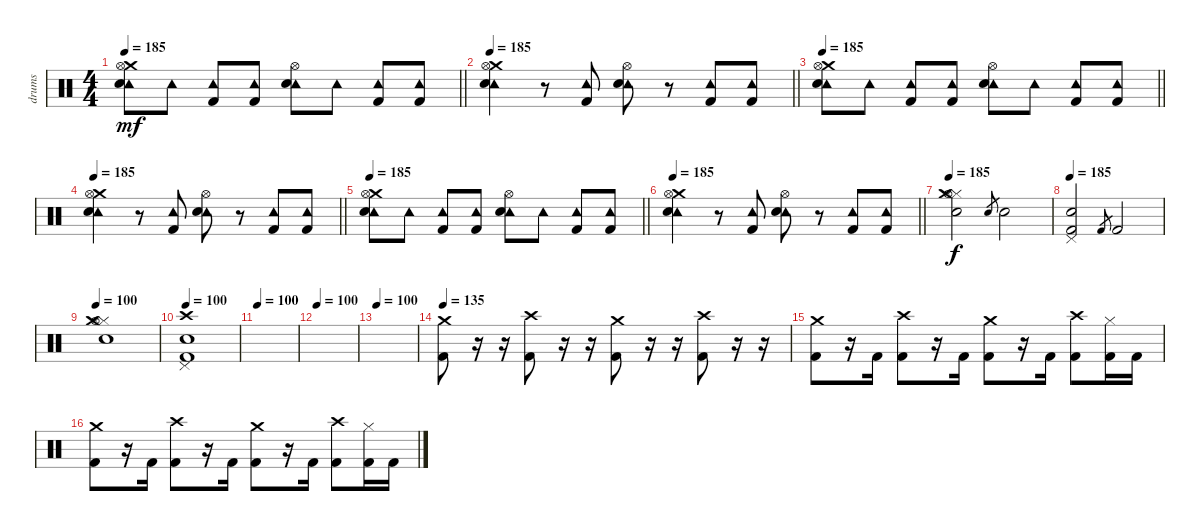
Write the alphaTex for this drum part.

\track ("drums" "drums") {instrument percussion}
\staff {score}
\articulation defaults
\ts (4 4)
\tempo 185
\clef neutral
\barLineRight lightlight
\ks c
("Tambourine (hit)" "Crash medium (hit)" "Hi-Hat (open)" "Electric Snare (hit)").8{dy mf} "Tambourine (hit)".8 ("Tambourine (hit)" "Kick (hit) 2").8 ("Tambourine (hit)" "Kick (hit) 2").8 ("Tambourine (hit)" "Hi-Hat (open)" "Electric Snare (hit)").8 "Tambourine (hit)".8 ("Tambourine (hit)" "Kick (hit) 2").8 ("Tambourine (hit)" "Kick (hit) 2").8 |
\tempo 185
\barLineRight lightlight
("Tambourine (hit)" "Crash medium (hit)" "Hi-Hat (open)" "Electric Snare (hit)").4 r.8 ("Tambourine (hit)" "Kick (hit) 2").8 ("Tambourine (hit)" "Hi-Hat (open)" "Electric Snare (hit)").8 r.8 ("Tambourine (hit)" "Kick (hit) 2").8 ("Tambourine (hit)" "Kick (hit) 2").8 |
\tempo 185
\barLineRight lightlight
("Tambourine (hit)" "Crash medium (hit)" "Hi-Hat (open)" "Electric Snare (hit)").8 "Tambourine (hit)".8 ("Tambourine (hit)" "Kick (hit) 2").8 ("Tambourine (hit)" "Kick (hit) 2").8 ("Tambourine (hit)" "Hi-Hat (open)" "Electric Snare (hit)").8 "Tambourine (hit)".8 ("Tambourine (hit)" "Kick (hit) 2").8 ("Tambourine (hit)" "Kick (hit) 2").8 |
\tempo 185
\barLineRight lightlight
("Tambourine (hit)" "Crash medium (hit)" "Hi-Hat (open)" "Electric Snare (hit)").4 r.8 ("Tambourine (hit)" "Kick (hit) 2").8 ("Tambourine (hit)" "Hi-Hat (open)" "Electric Snare (hit)").8 r.8 ("Tambourine (hit)" "Kick (hit) 2").8 ("Tambourine (hit)" "Kick (hit) 2").8 |
\tempo 185
\barLineRight lightlight
("Tambourine (hit)" "Crash medium (hit)" "Hi-Hat (open)" "Electric Snare (hit)").8 "Tambourine (hit)".8 ("Tambourine (hit)" "Kick (hit) 2").8 ("Tambourine (hit)" "Kick (hit) 2").8 ("Tambourine (hit)" "Hi-Hat (open)" "Electric Snare (hit)").8 "Tambourine (hit)".8 ("Tambourine (hit)" "Kick (hit) 2").8 ("Tambourine (hit)" "Kick (hit) 2").8 |
\tempo 185
\barLineRight lightlight
("Tambourine (hit)" "Crash medium (hit)" "Hi-Hat (open)" "Electric Snare (hit)").4 r.8 ("Tambourine (hit)" "Kick (hit) 2").8 ("Tambourine (hit)" "Hi-Hat (open)" "Electric Snare (hit)").8 r.8 ("Tambourine (hit)" "Kick (hit) 2").8 ("Tambourine (hit)" "Kick (hit) 2").8 |
\tempo 185
("Hi-Hat (closed)" "Crash medium (hit)" "Hi-Hat (open)" "Electric Snare (hit)").2{dy f} "Snare (hit) 2".8{gr} "Snare (hit) 2".2 |
\tempo 185
("Pedal Hi-Hat (hit)" "Snare (hit) 2" "Kick (hit) 2").2 "Kick (hit) 2".8{gr} "Kick (hit) 2".2 |
\tempo 100
("Hi-Hat (closed)" "Crash medium (hit)" "Hi-Hat (open)" "Electric Snare (hit)").1 |
\tempo 100
("Pedal Hi-Hat (hit)" "Snare (hit) 2" "Kick (hit) 2" "Crash high (hit)").1 |
\tempo 100
|
\tempo 100
|
\tempo 100
|
\tempo 90
\tempo 135
("Crash medium (hit)" "Kick (hit) 2").8 r.16 r.16 ("Crash high (hit)" "Kick (hit) 2").8 r.16 r.16 ("Crash medium (hit)" "Kick (hit) 2").8 r.16 r.16 ("Crash high (hit)" "Kick (hit) 2").8 r.16 r.16 |
("Crash medium (hit)" "Kick (hit) 2").8 r.16 "Kick (hit) 2".16 ("Crash high (hit)" "Kick (hit) 2").8 r.16 "Kick (hit) 2".16 ("Crash medium (hit)" "Kick (hit) 2").8 r.16 "Kick (hit) 2".16 ("Crash high (hit)" "Kick (hit) 2").8 ("Hi-Hat (closed)" "Kick (hit) 2").16 "Kick (hit) 2".16 |
("Crash medium (hit)" "Kick (hit) 2").8 r.16 "Kick (hit) 2".16 ("Crash high (hit)" "Kick (hit) 2").8 r.16 "Kick (hit) 2".16 ("Crash medium (hit)" "Kick (hit) 2").8 r.16 "Kick (hit) 2".16 ("Crash high (hit)" "Kick (hit) 2").8 ("Hi-Hat (closed)" "Kick (hit) 2").16 "Kick (hit) 2".16
